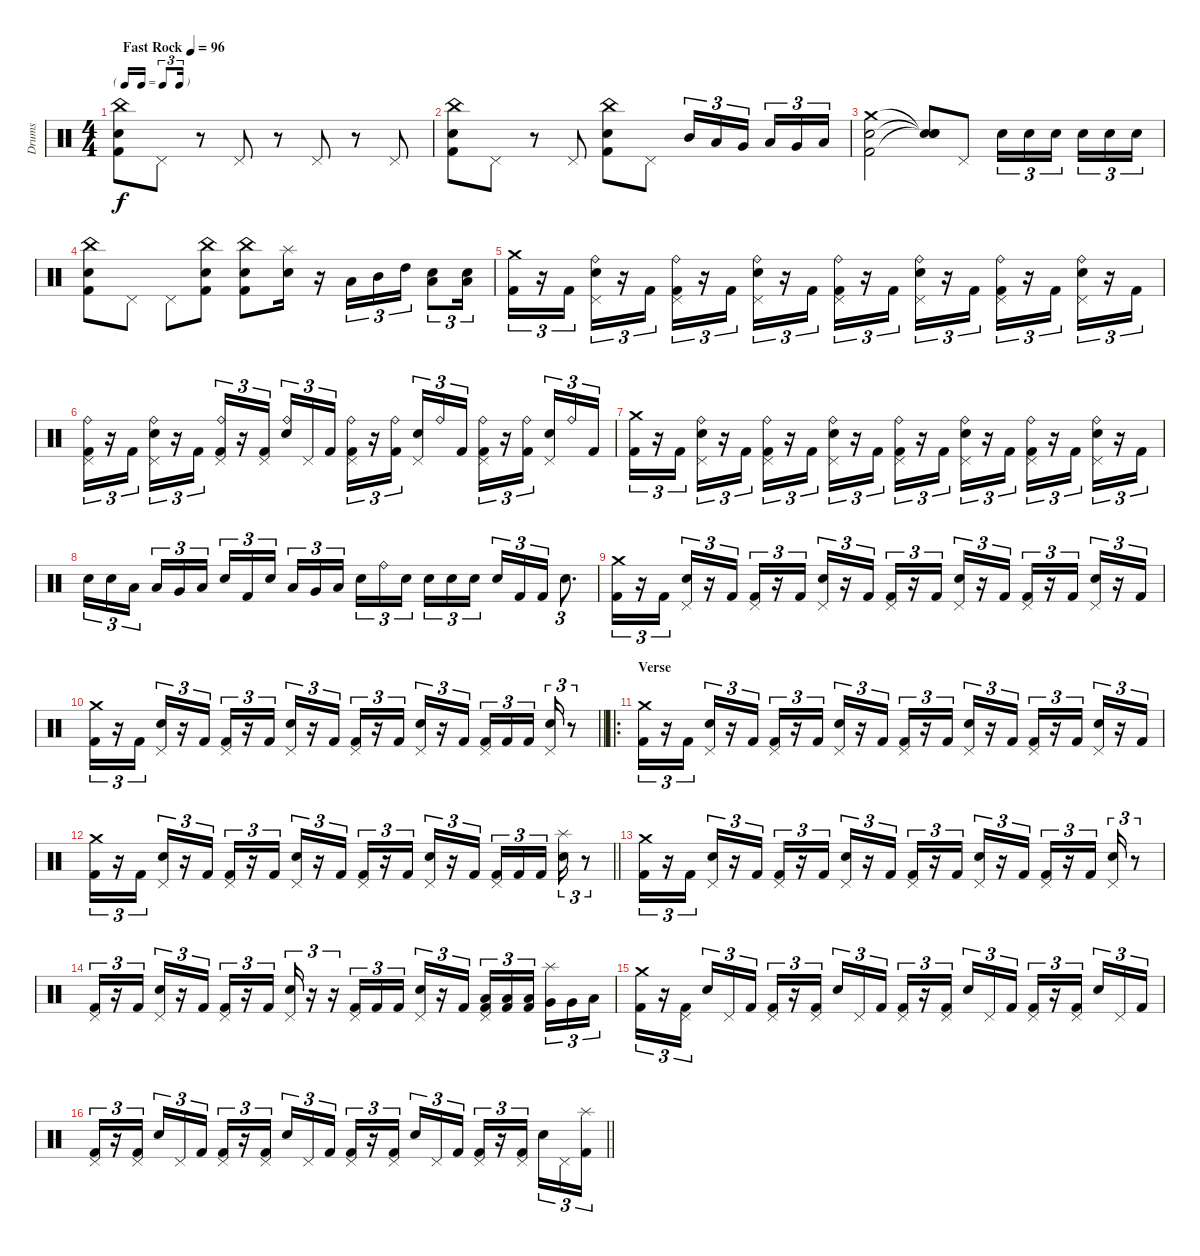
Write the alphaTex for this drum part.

\track ("Drums" "Drums") {instrument percussion}
\staff {score}
\articulation defaults
\ts (4 4)
\tf triplet16th
\tempo (96 "Fast Rock")
\clef neutral
\ks c
("China (hit)" "Snare (hit) 2" "Kick (hit) 2").8{dy f} "Pedal Hi-Hat (hit)".8 r.8 "Pedal Hi-Hat (hit)".8 r.8 "Pedal Hi-Hat (hit)".8 r.8 "Pedal Hi-Hat (hit)".8 |
("China (hit)" "Snare (hit) 2" "Kick (hit) 2").8 "Pedal Hi-Hat (hit)".8 r.8 "Pedal Hi-Hat (hit)".8 ("China (hit)" "Snare (hit) 2" "Kick (hit) 2").8 "Pedal Hi-Hat (hit)".8 "Mid Tom (hit)".16{tu (3 2)} "Low Tom (hit)".16{tu (3 2)} "Very Low Tom (hit)".16{tu (3 2) beam splitsecondary} "Low Floor Tom (hit)".16{tu (3 2)} "Very Low Tom (hit)".16{tu (3 2)} "Low Tom (hit)".16{tu (3 2)} |
("Crash medium (hit)" "Snare (hit) 2" "Kick (hit) 2").2 ("Snare (hit)"{t} "Snare (hit)"{t} "Snare (hit)"{t}).8 "Pedal Hi-Hat (hit)".8 "Snare (hit) 2".16{tu (3 2)} "Snare (hit) 2".16{tu (3 2)} "Snare (hit) 2".16{tu (3 2) beam splitsecondary} "Snare (hit) 2".16{tu (3 2)} "Snare (hit) 2".16{tu (3 2)} "Snare (hit) 2".16{tu (3 2)} |
("China (hit)" "Snare (hit) 2" "Kick (hit) 2").8 "Pedal Hi-Hat (hit)".8 "Pedal Hi-Hat (hit)".8 ("China (hit)" "Snare (hit) 2" "Kick (hit) 2").8 ("China (hit)" "Snare (hit) 2" "Kick (hit) 2").8 ("Splash (hit)" "Snare (hit) 2").16 r.16 "Low Tom (hit)".16{tu (3 2)} "Mid Tom (hit)".16{tu (3 2)} "High Tom (hit)".16{tu (3 2)} ("Snare (hit) 2" "Low Tom (hit)").8{tu (3 2)} ("Snare (hit) 2" "Low Tom (hit)").16{tu (3 2)} |
("Crash medium (hit)" "Kick (hit) 2").16{tu (3 2)} r.16{tu (3 2)} "Kick (hit) 2".16{tu (3 2)} ("Ride (bell)" "Pedal Hi-Hat (hit)" "Snare (hit) 2").16{tu (3 2)} r.16{tu (3 2)} "Kick (hit) 2".16{tu (3 2)} ("Ride (bell)" "Pedal Hi-Hat (hit)" "Kick (hit) 2").16{tu (3 2)} r.16{tu (3 2)} "Kick (hit) 2".16{tu (3 2)} ("Ride (bell)" "Pedal Hi-Hat (hit)" "Snare (hit) 2").16{tu (3 2)} r.16{tu (3 2)} "Kick (hit) 2".16{tu (3 2)} ("Ride (bell)" "Pedal Hi-Hat (hit)" "Kick (hit) 2").16{tu (3 2)} r.16{tu (3 2)} "Kick (hit) 2".16{tu (3 2)} ("Ride (bell)" "Pedal Hi-Hat (hit)" "Snare (hit) 2").16{tu (3 2)} r.16{tu (3 2)} "Kick (hit) 2".16{tu (3 2)} ("Ride (bell)" "Pedal Hi-Hat (hit)" "Kick (hit) 2").16{tu (3 2)} r.16{tu (3 2)} "Kick (hit) 2".16{tu (3 2)} ("Ride (bell)" "Pedal Hi-Hat (hit)" "Snare (hit) 2").16{tu (3 2)} r.16{tu (3 2)} "Kick (hit) 2".16{tu (3 2)} |
("Ride (bell)" "Pedal Hi-Hat (hit)" "Kick (hit) 2").16{tu (3 2)} r.16{tu (3 2)} "Kick (hit) 2".16{tu (3 2)} ("Ride (bell)" "Pedal Hi-Hat (hit)" "Snare (hit) 2").16{tu (3 2)} r.16{tu (3 2)} "Kick (hit) 2".16{tu (3 2)} ("Ride (bell)" "Pedal Hi-Hat (hit)" "Kick (hit) 2").16{tu (3 2)} r.16{tu (3 2)} ("Pedal Hi-Hat (hit)" "Kick (hit) 2").16{tu (3 2) beam splitsecondary} ("Ride (bell)" "Snare (hit) 2").16{tu (3 2)} "Pedal Hi-Hat (hit)".16{tu (3 2)} "Kick (hit) 2".16{tu (3 2)} ("Ride (bell)" "Pedal Hi-Hat (hit)" "Kick (hit) 2").16{tu (3 2)} r.16{tu (3 2)} ("Ride (bell)" "Kick (hit) 2").16{tu (3 2) beam splitsecondary} ("Pedal Hi-Hat (hit)" "Snare (hit) 2").16{tu (3 2)} "Ride (bell)".16{tu (3 2)} "Kick (hit) 2".16{tu (3 2)} ("Ride (bell)" "Pedal Hi-Hat (hit)" "Kick (hit) 2").16{tu (3 2)} r.16{tu (3 2)} ("Ride (bell)" "Kick (hit) 2").16{tu (3 2) beam splitsecondary} ("Pedal Hi-Hat (hit)" "Snare (hit) 2").16{tu (3 2)} "Ride (bell)".16{tu (3 2)} "Kick (hit) 2".16{tu (3 2)} |
("Crash medium (hit)" "Kick (hit) 2").16{tu (3 2)} r.16{tu (3 2)} "Kick (hit) 2".16{tu (3 2)} ("Ride (bell)" "Pedal Hi-Hat (hit)" "Snare (hit) 2").16{tu (3 2)} r.16{tu (3 2)} "Kick (hit) 2".16{tu (3 2)} ("Ride (bell)" "Pedal Hi-Hat (hit)" "Kick (hit) 2").16{tu (3 2)} r.16{tu (3 2)} "Kick (hit) 2".16{tu (3 2)} ("Ride (bell)" "Pedal Hi-Hat (hit)" "Snare (hit) 2").16{tu (3 2)} r.16{tu (3 2)} "Kick (hit) 2".16{tu (3 2)} ("Ride (bell)" "Pedal Hi-Hat (hit)" "Kick (hit) 2").16{tu (3 2)} r.16{tu (3 2)} "Kick (hit) 2".16{tu (3 2)} ("Ride (bell)" "Pedal Hi-Hat (hit)" "Snare (hit) 2").16{tu (3 2)} r.16{tu (3 2)} "Kick (hit) 2".16{tu (3 2)} ("Ride (bell)" "Pedal Hi-Hat (hit)" "Kick (hit) 2").16{tu (3 2)} r.16{tu (3 2)} "Kick (hit) 2".16{tu (3 2)} ("Ride (bell)" "Pedal Hi-Hat (hit)" "Snare (hit) 2").16{tu (3 2)} r.16{tu (3 2)} "Kick (hit) 2".16{tu (3 2)} |
"Snare (hit) 2".16{tu (3 2)} "Snare (hit) 2".16{tu (3 2)} "Low Tom (hit)".16{tu (3 2) beam splitsecondary} "Low Tom (hit)".16{tu (3 2)} "Very Low Tom (hit)".16{tu (3 2)} "Low Floor Tom (hit)".16{tu (3 2)} "Snare (hit) 2".16{tu (3 2)} "Kick (hit) 2".16{tu (3 2)} "Snare (hit) 2".16{tu (3 2) beam splitsecondary} "Low Floor Tom (hit)".16{tu (3 2)} "Very Low Tom (hit)".16{tu (3 2)} "Low Tom (hit)".16{tu (3 2)} "Electric Snare (hit)".16{tu (3 2)} "Ride (bell)".16{tu (3 2)} "Electric Snare (hit)".16{tu (3 2) beam splitsecondary} "Electric Snare (hit)".16{tu (3 2)} "Electric Snare (hit)".16{tu (3 2)} "Electric Snare (hit)".16{tu (3 2)} "Electric Snare (hit)".16{tu (3 2)} "Kick (hit) 2".16{tu (3 2)} "Kick (hit) 2".16{tu (3 2)} "Snare (hit) 2".8{d tu (3 2)} |
("Crash medium (hit)" "Kick (hit) 2").16{tu (3 2)} r.16{tu (3 2)} "Kick (hit) 2".16{tu (3 2)} ("Pedal Hi-Hat (hit)" "Snare (hit) 2").16{tu (3 2)} r.16{tu (3 2)} "Kick (hit) 2".16{tu (3 2)} ("Pedal Hi-Hat (hit)" "Kick (hit) 2").16{tu (3 2)} r.16{tu (3 2)} "Kick (hit) 2".16{tu (3 2)} ("Pedal Hi-Hat (hit)" "Snare (hit) 2").16{tu (3 2)} r.16{tu (3 2)} "Kick (hit) 2".16{tu (3 2)} ("Pedal Hi-Hat (hit)" "Kick (hit) 2").16{tu (3 2)} r.16{tu (3 2)} "Kick (hit) 2".16{tu (3 2)} ("Pedal Hi-Hat (hit)" "Snare (hit) 2").16{tu (3 2)} r.16{tu (3 2)} "Kick (hit) 2".16{tu (3 2)} ("Pedal Hi-Hat (hit)" "Kick (hit) 2").16{tu (3 2)} r.16{tu (3 2)} "Kick (hit) 2".16{tu (3 2)} ("Pedal Hi-Hat (hit)" "Snare (hit) 2").16{tu (3 2)} r.16{tu (3 2)} "Kick (hit) 2".16{tu (3 2)} |
\barLineRight lightlight
("Crash medium (hit)" "Kick (hit) 2").16{tu (3 2)} r.16{tu (3 2)} "Kick (hit) 2".16{tu (3 2)} ("Pedal Hi-Hat (hit)" "Snare (hit) 2").16{tu (3 2)} r.16{tu (3 2)} "Kick (hit) 2".16{tu (3 2)} ("Pedal Hi-Hat (hit)" "Kick (hit) 2").16{tu (3 2)} r.16{tu (3 2)} "Kick (hit) 2".16{tu (3 2)} ("Pedal Hi-Hat (hit)" "Snare (hit) 2").16{tu (3 2)} r.16{tu (3 2)} "Kick (hit) 2".16{tu (3 2)} ("Pedal Hi-Hat (hit)" "Kick (hit) 2").16{tu (3 2)} r.16{tu (3 2)} "Kick (hit) 2".16{tu (3 2)} ("Pedal Hi-Hat (hit)" "Snare (hit) 2").16{tu (3 2)} r.16{tu (3 2)} "Kick (hit) 2".16{tu (3 2)} ("Pedal Hi-Hat (hit)" "Kick (hit) 2").16{tu (3 2)} "Kick (hit) 2".16{tu (3 2)} "Kick (hit) 2".16{tu (3 2) beam splitsecondary} ("Pedal Hi-Hat (hit)" "Snare (hit) 2").16{tu (3 2)} r.8{tu (3 2)} |
\ro
\section ("" "Verse")
("Crash medium (hit)" "Kick (hit) 2").16{tu (3 2)} r.16{tu (3 2)} "Kick (hit) 2".16{tu (3 2)} ("Pedal Hi-Hat (hit)" "Snare (hit) 2").16{tu (3 2)} r.16{tu (3 2)} "Kick (hit) 2".16{tu (3 2)} ("Pedal Hi-Hat (hit)" "Kick (hit) 2").16{tu (3 2)} r.16{tu (3 2)} "Kick (hit) 2".16{tu (3 2)} ("Pedal Hi-Hat (hit)" "Snare (hit) 2").16{tu (3 2)} r.16{tu (3 2)} "Kick (hit) 2".16{tu (3 2)} ("Pedal Hi-Hat (hit)" "Kick (hit) 2").16{tu (3 2)} r.16{tu (3 2)} "Kick (hit) 2".16{tu (3 2)} ("Pedal Hi-Hat (hit)" "Snare (hit) 2").16{tu (3 2)} r.16{tu (3 2)} "Kick (hit) 2".16{tu (3 2)} ("Pedal Hi-Hat (hit)" "Kick (hit) 2").16{tu (3 2)} r.16{tu (3 2)} "Kick (hit) 2".16{tu (3 2)} ("Pedal Hi-Hat (hit)" "Snare (hit) 2").16{tu (3 2)} r.16{tu (3 2)} "Kick (hit) 2".16{tu (3 2)} |
\barLineRight lightlight
("Crash medium (hit)" "Kick (hit) 2").16{tu (3 2)} r.16{tu (3 2)} "Kick (hit) 2".16{tu (3 2)} ("Pedal Hi-Hat (hit)" "Snare (hit) 2").16{tu (3 2)} r.16{tu (3 2)} "Kick (hit) 2".16{tu (3 2)} ("Pedal Hi-Hat (hit)" "Kick (hit) 2").16{tu (3 2)} r.16{tu (3 2)} "Kick (hit) 2".16{tu (3 2)} ("Pedal Hi-Hat (hit)" "Snare (hit) 2").16{tu (3 2)} r.16{tu (3 2)} "Kick (hit) 2".16{tu (3 2)} ("Pedal Hi-Hat (hit)" "Kick (hit) 2").16{tu (3 2)} r.16{tu (3 2)} "Kick (hit) 2".16{tu (3 2)} ("Pedal Hi-Hat (hit)" "Snare (hit) 2").16{tu (3 2)} r.16{tu (3 2)} "Kick (hit) 2".16{tu (3 2)} ("Pedal Hi-Hat (hit)" "Kick (hit) 2").16{tu (3 2)} "Kick (hit) 2".16{tu (3 2)} "Kick (hit) 2".16{tu (3 2) beam splitsecondary} ("Splash (hit)" "Snare (hit) 2").16{tu (3 2)} r.8{tu (3 2)} |
("Crash medium (hit)" "Kick (hit) 2").16{tu (3 2)} r.16{tu (3 2)} "Kick (hit) 2".16{tu (3 2)} ("Pedal Hi-Hat (hit)" "Snare (hit) 2").16{tu (3 2)} r.16{tu (3 2)} "Kick (hit) 2".16{tu (3 2)} ("Pedal Hi-Hat (hit)" "Kick (hit) 2").16{tu (3 2)} r.16{tu (3 2)} "Kick (hit) 2".16{tu (3 2)} ("Pedal Hi-Hat (hit)" "Snare (hit) 2").16{tu (3 2)} r.16{tu (3 2)} "Kick (hit) 2".16{tu (3 2)} ("Pedal Hi-Hat (hit)" "Kick (hit) 2").16{tu (3 2)} r.16{tu (3 2)} "Kick (hit) 2".16{tu (3 2)} ("Pedal Hi-Hat (hit)" "Snare (hit) 2").16{tu (3 2)} r.16{tu (3 2)} "Kick (hit) 2".16{tu (3 2)} ("Pedal Hi-Hat (hit)" "Kick (hit) 2").16{tu (3 2)} r.16{tu (3 2)} "Kick (hit) 2".16{tu (3 2)} ("Pedal Hi-Hat (hit)" "Snare (hit) 2").16{tu (3 2)} r.8{tu (3 2)} |
("Pedal Hi-Hat (hit)" "Kick (hit) 2").16{tu (3 2)} r.16{tu (3 2)} "Kick (hit) 2".16{tu (3 2)} ("Pedal Hi-Hat (hit)" "Snare (hit) 2").16{tu (3 2)} r.16{tu (3 2)} "Kick (hit) 2".16{tu (3 2)} ("Pedal Hi-Hat (hit)" "Kick (hit) 2").16{tu (3 2)} r.16{tu (3 2)} "Kick (hit) 2".16{tu (3 2)} ("Pedal Hi-Hat (hit)" "Snare (hit) 2").16{tu (3 2)} r.16{tu (3 2)} r.16{tu (3 2)} ("Pedal Hi-Hat (hit)" "Kick (hit) 2").16{tu (3 2)} "Kick (hit) 2".16{tu (3 2)} "Kick (hit) 2".16{tu (3 2) beam splitsecondary} ("Pedal Hi-Hat (hit)" "Snare (hit) 2").16{tu (3 2)} r.16{tu (3 2)} "Kick (hit) 2".16{tu (3 2)} ("Pedal Hi-Hat (hit)" "Low Tom (hit)" "Kick (hit) 2").16{tu (3 2)} ("Low Tom (hit)" "Kick (hit) 2").16{tu (3 2)} ("Low Tom (hit)" "Kick (hit) 2").16{tu (3 2) beam splitsecondary} ("Splash (hit)" "Very Low Tom (hit)").16{tu (3 2)} "Very Low Tom (hit)".16{tu (3 2)} "Low Floor Tom (hit)".16{tu (3 2)} |
("Crash medium (hit)" "Kick (hit) 2").16{tu (3 2)} r.16{tu (3 2)} ("Pedal Hi-Hat (hit)" "Kick (hit) 2").16{tu (3 2) beam splitsecondary} "Snare (hit) 2".16{tu (3 2)} "Pedal Hi-Hat (hit)".16{tu (3 2)} "Kick (hit) 2".16{tu (3 2)} ("Pedal Hi-Hat (hit)" "Kick (hit) 2").16{tu (3 2)} r.16{tu (3 2)} ("Pedal Hi-Hat (hit)" "Kick (hit) 2").16{tu (3 2) beam splitsecondary} "Snare (hit) 2".16{tu (3 2)} "Pedal Hi-Hat (hit)".16{tu (3 2)} "Kick (hit) 2".16{tu (3 2)} ("Pedal Hi-Hat (hit)" "Kick (hit) 2").16{tu (3 2)} r.16{tu (3 2)} ("Pedal Hi-Hat (hit)" "Kick (hit) 2").16{tu (3 2) beam splitsecondary} "Snare (hit) 2".16{tu (3 2)} "Pedal Hi-Hat (hit)".16{tu (3 2)} "Kick (hit) 2".16{tu (3 2)} ("Pedal Hi-Hat (hit)" "Kick (hit) 2").16{tu (3 2)} r.16{tu (3 2)} ("Pedal Hi-Hat (hit)" "Kick (hit) 2").16{tu (3 2) beam splitsecondary} "Snare (hit) 2".16{tu (3 2)} "Pedal Hi-Hat (hit)".16{tu (3 2)} "Kick (hit) 2".16{tu (3 2)} |
\barLineRight lightlight
("Pedal Hi-Hat (hit)" "Kick (hit) 2").16{tu (3 2)} r.16{tu (3 2)} ("Pedal Hi-Hat (hit)" "Kick (hit) 2").16{tu (3 2) beam splitsecondary} "Snare (hit) 2".16{tu (3 2)} "Pedal Hi-Hat (hit)".16{tu (3 2)} "Kick (hit) 2".16{tu (3 2)} ("Pedal Hi-Hat (hit)" "Kick (hit) 2").16{tu (3 2)} r.16{tu (3 2)} ("Pedal Hi-Hat (hit)" "Kick (hit) 2").16{tu (3 2) beam splitsecondary} "Snare (hit) 2".16{tu (3 2)} "Pedal Hi-Hat (hit)".16{tu (3 2)} "Kick (hit) 2".16{tu (3 2)} ("Pedal Hi-Hat (hit)" "Kick (hit) 2").16{tu (3 2)} r.16{tu (3 2)} ("Pedal Hi-Hat (hit)" "Kick (hit) 2").16{tu (3 2) beam splitsecondary} "Snare (hit) 2".16{tu (3 2)} "Pedal Hi-Hat (hit)".16{tu (3 2)} "Kick (hit) 2".16{tu (3 2)} ("Pedal Hi-Hat (hit)" "Kick (hit) 2").16{tu (3 2)} r.16{tu (3 2)} ("Pedal Hi-Hat (hit)" "Kick (hit) 2").16{tu (3 2) beam splitsecondary} "Snare (hit) 2".16{tu (3 2)} "Pedal Hi-Hat (hit)".16{tu (3 2)} ("Splash (hit)" "Kick (hit) 2").16{tu (3 2)}
